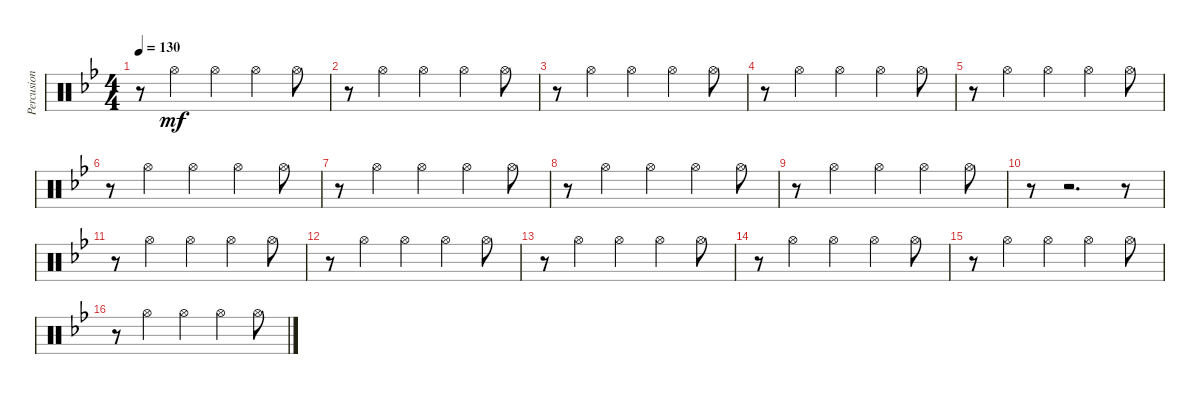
\track ("Percusion IV" "Percusion ") {instrument percussion}
\staff {score}
\articulation defaults
\ts (4 4)
\tempo 130
\clef neutral
\ks gminor
r.8{dy mf} "Hi-Hat (open)".4 "Hi-Hat (open)".4 "Hi-Hat (open)".4 "Hi-Hat (open)".8 |
r.8 "Hi-Hat (open)".4 "Hi-Hat (open)".4 "Hi-Hat (open)".4 "Hi-Hat (open)".8 |
r.8 "Hi-Hat (open)".4 "Hi-Hat (open)".4 "Hi-Hat (open)".4 "Hi-Hat (open)".8 |
r.8 "Hi-Hat (open)".4 "Hi-Hat (open)".4 "Hi-Hat (open)".4 "Hi-Hat (open)".8 |
r.8 "Hi-Hat (open)".4 "Hi-Hat (open)".4 "Hi-Hat (open)".4 "Hi-Hat (open)".8 |
r.8 "Hi-Hat (open)".4 "Hi-Hat (open)".4 "Hi-Hat (open)".4 "Hi-Hat (open)".8 |
r.8 "Hi-Hat (open)".4 "Hi-Hat (open)".4 "Hi-Hat (open)".4 "Hi-Hat (open)".8 |
r.8 "Hi-Hat (open)".4 "Hi-Hat (open)".4 "Hi-Hat (open)".4 "Hi-Hat (open)".8 |
r.8 "Hi-Hat (open)".4 "Hi-Hat (open)".4 "Hi-Hat (open)".4 "Hi-Hat (open)".8 |
r.8 r.2{d} r.8 |
r.8 "Hi-Hat (open)".4 "Hi-Hat (open)".4 "Hi-Hat (open)".4 "Hi-Hat (open)".8 |
r.8 "Hi-Hat (open)".4 "Hi-Hat (open)".4 "Hi-Hat (open)".4 "Hi-Hat (open)".8 |
r.8 "Hi-Hat (open)".4 "Hi-Hat (open)".4 "Hi-Hat (open)".4 "Hi-Hat (open)".8 |
r.8 "Hi-Hat (open)".4 "Hi-Hat (open)".4 "Hi-Hat (open)".4 "Hi-Hat (open)".8 |
r.8 "Hi-Hat (open)".4 "Hi-Hat (open)".4 "Hi-Hat (open)".4 "Hi-Hat (open)".8 |
r.8 "Hi-Hat (open)".4 "Hi-Hat (open)".4 "Hi-Hat (open)".4 "Hi-Hat (open)".8
